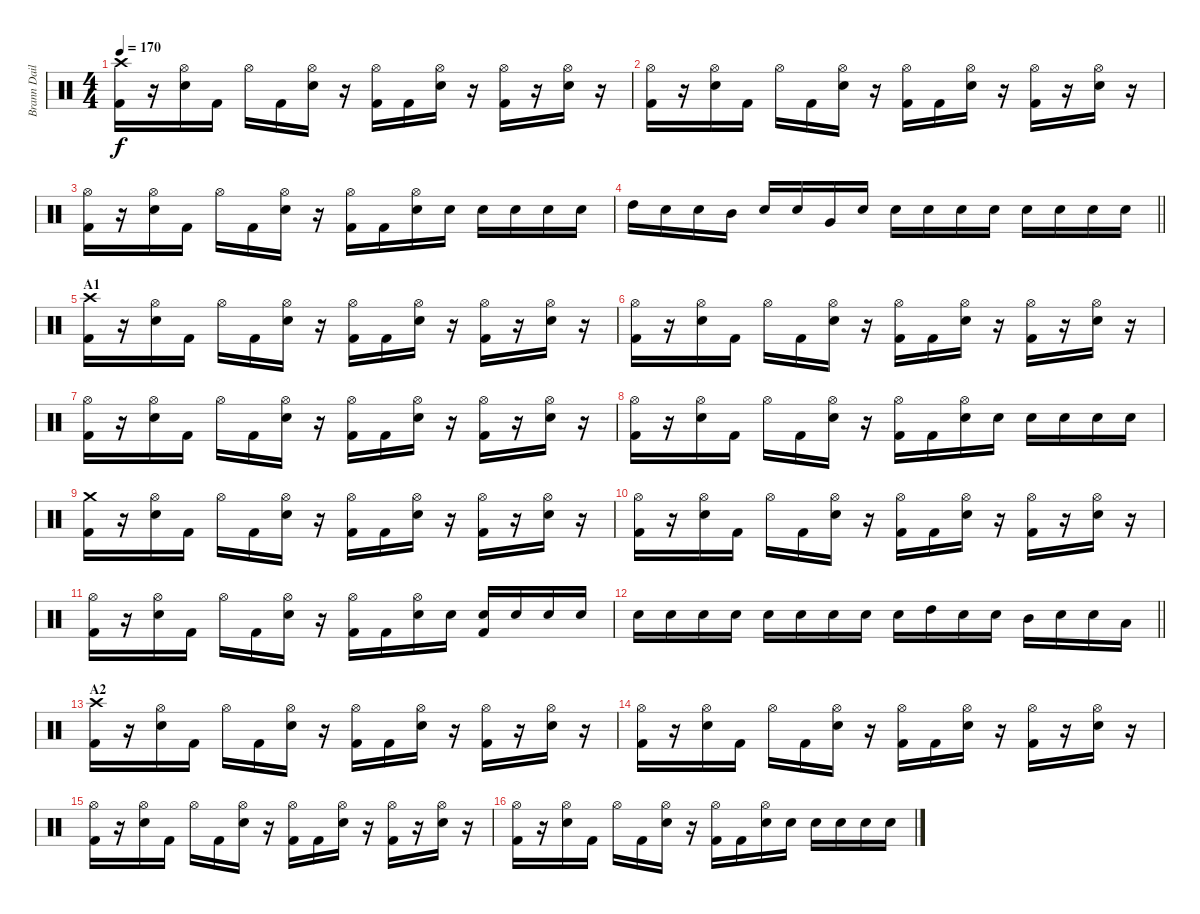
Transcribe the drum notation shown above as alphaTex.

\track ("Brann Dailor" "Brann Dail") {instrument percussion}
\staff {score}
\articulation defaults
\ts (4 4)
\tempo 170
\clef neutral
\ks c
("Crash high (hit)" "Kick (hit) 2").16{dy f} r.16 ("Hi-Hat (open)" "Electric Snare (hit)").16 "Kick (hit) 2".16 "Hi-Hat (open)".16 "Kick (hit) 2".16 ("Hi-Hat (open)" "Electric Snare (hit)").16 r.16 ("Hi-Hat (open)" "Kick (hit) 2").16 "Kick (hit) 2".16 ("Hi-Hat (open)" "Electric Snare (hit)").16 r.16 ("Hi-Hat (open)" "Kick (hit) 2").16 r.16 ("Hi-Hat (open)" "Electric Snare (hit)").16 r.16 |
("Hi-Hat (open)" "Kick (hit) 2").16 r.16 ("Hi-Hat (open)" "Electric Snare (hit)").16 "Kick (hit) 2".16 "Hi-Hat (open)".16 "Kick (hit) 2".16 ("Hi-Hat (open)" "Electric Snare (hit)").16 r.16 ("Hi-Hat (open)" "Kick (hit) 2").16 "Kick (hit) 2".16 ("Hi-Hat (open)" "Electric Snare (hit)").16 r.16 ("Hi-Hat (open)" "Kick (hit) 2").16 r.16 ("Hi-Hat (open)" "Electric Snare (hit)").16 r.16 |
("Hi-Hat (open)" "Kick (hit) 2").16 r.16 ("Hi-Hat (open)" "Electric Snare (hit)").16 "Kick (hit) 2".16 "Hi-Hat (open)".16 "Kick (hit) 2".16 ("Hi-Hat (open)" "Electric Snare (hit)").16 r.16 ("Hi-Hat (open)" "Kick (hit) 2").16 "Kick (hit) 2".16 ("Hi-Hat (open)" "Electric Snare (hit)").16 "Electric Snare (hit)".16 "Electric Snare (hit)".16 "Electric Snare (hit)".16 "Electric Snare (hit)".16 "Electric Snare (hit)".16 |
\barLineRight lightlight "High Tom (hit)".16 "Electric Snare (hit)".16 "Electric Snare (hit)".16 "Mid Tom (hit)".16 "Electric Snare (hit)".16 "Electric Snare (hit)".16 "Very Low Tom (hit)".16 "Electric Snare (hit)".16 "Electric Snare (hit)".16 "Electric Snare (hit)".16 "Electric Snare (hit)".16 "Electric Snare (hit)".16 "Electric Snare (hit)".16 "Electric Snare (hit)".16 "Electric Snare (hit)".16 "Electric Snare (hit)".16
|
\section ("" "A1")
("Crash high (hit)" "Kick (hit) 2").16 r.16 ("Hi-Hat (open)" "Electric Snare (hit)").16 "Kick (hit) 2".16 "Hi-Hat (open)".16 "Kick (hit) 2".16 ("Hi-Hat (open)" "Electric Snare (hit)").16 r.16 ("Hi-Hat (open)" "Kick (hit) 2").16 "Kick (hit) 2".16 ("Hi-Hat (open)" "Electric Snare (hit)").16 r.16 ("Hi-Hat (open)" "Kick (hit) 2").16 r.16 ("Hi-Hat (open)" "Electric Snare (hit)").16 r.16 |
("Hi-Hat (open)" "Kick (hit) 2").16 r.16 ("Hi-Hat (open)" "Electric Snare (hit)").16 "Kick (hit) 2".16 "Hi-Hat (open)".16 "Kick (hit) 2".16 ("Hi-Hat (open)" "Electric Snare (hit)").16 r.16 ("Hi-Hat (open)" "Kick (hit) 2").16 "Kick (hit) 2".16 ("Hi-Hat (open)" "Electric Snare (hit)").16 r.16 ("Hi-Hat (open)" "Kick (hit) 2").16 r.16 ("Hi-Hat (open)" "Electric Snare (hit)").16 r.16 |
("Hi-Hat (open)" "Kick (hit) 2").16 r.16 ("Hi-Hat (open)" "Electric Snare (hit)").16 "Kick (hit) 2".16 "Hi-Hat (open)".16 "Kick (hit) 2".16 ("Hi-Hat (open)" "Electric Snare (hit)").16 r.16 ("Hi-Hat (open)" "Kick (hit) 2").16 "Kick (hit) 2".16 ("Hi-Hat (open)" "Electric Snare (hit)").16 r.16 ("Hi-Hat (open)" "Kick (hit) 2").16 r.16 ("Hi-Hat (open)" "Electric Snare (hit)").16 r.16 |
("Hi-Hat (open)" "Kick (hit) 2").16 r.16 ("Hi-Hat (open)" "Electric Snare (hit)").16 "Kick (hit) 2".16 "Hi-Hat (open)".16 "Kick (hit) 2".16 ("Hi-Hat (open)" "Electric Snare (hit)").16 r.16 ("Hi-Hat (open)" "Kick (hit) 2").16 "Kick (hit) 2".16 ("Hi-Hat (open)" "Electric Snare (hit)").16 "Electric Snare (hit)".16 "Electric Snare (hit)".16 "Electric Snare (hit)".16 "Electric Snare (hit)".16 "Electric Snare (hit)".16 |
("Crash medium (hit)" "Kick (hit) 2").16 r.16 ("Hi-Hat (open)" "Electric Snare (hit)").16 "Kick (hit) 2".16 "Hi-Hat (open)".16 "Kick (hit) 2".16 ("Hi-Hat (open)" "Electric Snare (hit)").16 r.16 ("Hi-Hat (open)" "Kick (hit) 2").16 "Kick (hit) 2".16 ("Hi-Hat (open)" "Electric Snare (hit)").16 r.16 ("Hi-Hat (open)" "Kick (hit) 2").16 r.16 ("Hi-Hat (open)" "Electric Snare (hit)").16 r.16 |
("Hi-Hat (open)" "Kick (hit) 2").16 r.16 ("Hi-Hat (open)" "Electric Snare (hit)").16 "Kick (hit) 2".16 "Hi-Hat (open)".16 "Kick (hit) 2".16 ("Hi-Hat (open)" "Electric Snare (hit)").16 r.16 ("Hi-Hat (open)" "Kick (hit) 2").16 "Kick (hit) 2".16 ("Hi-Hat (open)" "Electric Snare (hit)").16 r.16 ("Hi-Hat (open)" "Kick (hit) 2").16 r.16 ("Hi-Hat (open)" "Electric Snare (hit)").16 r.16 |
("Hi-Hat (open)" "Kick (hit) 2").16 r.16 ("Hi-Hat (open)" "Electric Snare (hit)").16 "Kick (hit) 2".16 "Hi-Hat (open)".16 "Kick (hit) 2".16 ("Hi-Hat (open)" "Electric Snare (hit)").16 r.16 ("Hi-Hat (open)" "Kick (hit) 2").16 "Kick (hit) 2".16 ("Hi-Hat (open)" "Electric Snare (hit)").16 "Electric Snare (hit)".16 ("Electric Snare (hit)" "Kick (hit) 2").16 "Electric Snare (hit)".16 "Electric Snare (hit)".16 "Electric Snare (hit)".16 |
\barLineRight lightlight "Electric Snare (hit)".16 "Electric Snare (hit)".16 "Electric Snare (hit)".16 "Electric Snare (hit)".16 "Electric Snare (hit)".16 "Electric Snare (hit)".16 "Electric Snare (hit)".16 "Electric Snare (hit)".16 "Electric Snare (hit)".16 "High Tom (hit)".16 "Electric Snare (hit)".16 "Electric Snare (hit)".16 "Mid Tom (hit)".16 "Electric Snare (hit)".16 "Electric Snare (hit)".16 "Low Tom (hit)".16
|
\section ("" "A2")
("Crash high (hit)" "Kick (hit) 2").16 r.16 ("Hi-Hat (open)" "Electric Snare (hit)").16 "Kick (hit) 2".16 "Hi-Hat (open)".16 "Kick (hit) 2".16 ("Hi-Hat (open)" "Electric Snare (hit)").16 r.16 ("Hi-Hat (open)" "Kick (hit) 2").16 "Kick (hit) 2".16 ("Hi-Hat (open)" "Electric Snare (hit)").16 r.16 ("Hi-Hat (open)" "Kick (hit) 2").16 r.16 ("Hi-Hat (open)" "Electric Snare (hit)").16 r.16 |
("Hi-Hat (open)" "Kick (hit) 2").16 r.16 ("Hi-Hat (open)" "Electric Snare (hit)").16 "Kick (hit) 2".16 "Hi-Hat (open)".16 "Kick (hit) 2".16 ("Hi-Hat (open)" "Electric Snare (hit)").16 r.16 ("Hi-Hat (open)" "Kick (hit) 2").16 "Kick (hit) 2".16 ("Hi-Hat (open)" "Electric Snare (hit)").16 r.16 ("Hi-Hat (open)" "Kick (hit) 2").16 r.16 ("Hi-Hat (open)" "Electric Snare (hit)").16 r.16 |
("Hi-Hat (open)" "Kick (hit) 2").16 r.16 ("Hi-Hat (open)" "Electric Snare (hit)").16 "Kick (hit) 2".16 "Hi-Hat (open)".16 "Kick (hit) 2".16 ("Hi-Hat (open)" "Electric Snare (hit)").16 r.16 ("Hi-Hat (open)" "Kick (hit) 2").16 "Kick (hit) 2".16 ("Hi-Hat (open)" "Electric Snare (hit)").16 r.16 ("Hi-Hat (open)" "Kick (hit) 2").16 r.16 ("Hi-Hat (open)" "Electric Snare (hit)").16 r.16 |
("Hi-Hat (open)" "Kick (hit) 2").16 r.16 ("Hi-Hat (open)" "Electric Snare (hit)").16 "Kick (hit) 2".16 "Hi-Hat (open)".16 "Kick (hit) 2".16 ("Hi-Hat (open)" "Electric Snare (hit)").16 r.16 ("Hi-Hat (open)" "Kick (hit) 2").16 "Kick (hit) 2".16 ("Hi-Hat (open)" "Electric Snare (hit)").16 "Electric Snare (hit)".16 "Electric Snare (hit)".16 "Electric Snare (hit)".16 "Electric Snare (hit)".16 "Electric Snare (hit)".16
